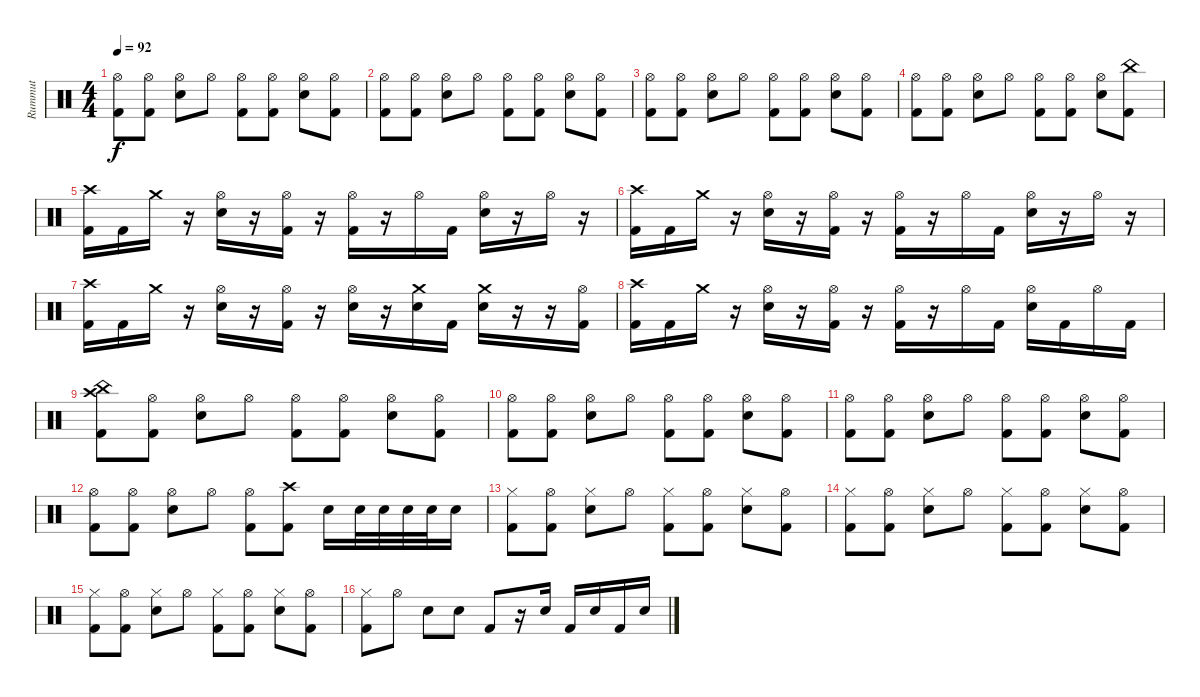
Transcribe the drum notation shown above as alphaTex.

\track ("Rummut" "Rummut") {instrument percussion}
\staff {score}
\articulation defaults
\ts (4 4)
\tempo 92
\clef neutral
\ks c
("Hi-Hat (open)" "Kick (hit) 2").8{dy f} ("Hi-Hat (open)" "Kick (hit) 2").8 ("Hi-Hat (open)" "Snare (hit) 2").8 "Hi-Hat (open)".8 ("Hi-Hat (open)" "Kick (hit) 2").8 ("Hi-Hat (open)" "Kick (hit) 2").8 ("Hi-Hat (open)" "Snare (hit) 2").8 ("Hi-Hat (open)" "Kick (hit) 2").8 |
("Hi-Hat (open)" "Kick (hit) 2").8 ("Hi-Hat (open)" "Kick (hit) 2").8 ("Hi-Hat (open)" "Snare (hit) 2").8 "Hi-Hat (open)".8 ("Hi-Hat (open)" "Kick (hit) 2").8 ("Hi-Hat (open)" "Kick (hit) 2").8 ("Hi-Hat (open)" "Snare (hit) 2").8 ("Hi-Hat (open)" "Kick (hit) 2").8 |
("Hi-Hat (open)" "Kick (hit) 2").8 ("Hi-Hat (open)" "Kick (hit) 2").8 ("Hi-Hat (open)" "Snare (hit) 2").8 "Hi-Hat (open)".8 ("Hi-Hat (open)" "Kick (hit) 2").8 ("Hi-Hat (open)" "Kick (hit) 2").8 ("Hi-Hat (open)" "Snare (hit) 2").8 ("Hi-Hat (open)" "Kick (hit) 2").8 |
("Hi-Hat (open)" "Kick (hit) 2").8 ("Hi-Hat (open)" "Kick (hit) 2").8 ("Hi-Hat (open)" "Snare (hit) 2").8 "Hi-Hat (open)".8 ("Hi-Hat (open)" "Kick (hit) 2").8 ("Hi-Hat (open)" "Kick (hit) 2").8 ("Hi-Hat (open)" "Snare (hit) 2").8 ("China (hit)" "Kick (hit) 2").8 |
("Crash high (hit)" "Kick (hit) 2").16 "Kick (hit) 2".16 "Crash medium (hit)".16 r.16 ("Hi-Hat (open)" "Snare (hit) 2").16 r.16 ("Hi-Hat (open)" "Kick (hit) 2").16 r.16 ("Hi-Hat (open)" "Kick (hit) 2").16 r.16 "Hi-Hat (open)".16 "Kick (hit) 2".16 ("Hi-Hat (open)" "Snare (hit) 2").16 r.16 "Hi-Hat (open)".16 r.16 |
("Crash high (hit)" "Kick (hit) 2").16 "Kick (hit) 2".16 "Crash medium (hit)".16 r.16 ("Hi-Hat (open)" "Snare (hit) 2").16 r.16 ("Hi-Hat (open)" "Kick (hit) 2").16 r.16 ("Hi-Hat (open)" "Kick (hit) 2").16 r.16 "Hi-Hat (open)".16 "Kick (hit) 2".16 ("Hi-Hat (open)" "Snare (hit) 2").16 r.16 "Hi-Hat (open)".16 r.16 |
("Crash high (hit)" "Kick (hit) 2").16 "Kick (hit) 2".16 "Crash medium (hit)".16 r.16 ("Hi-Hat (open)" "Snare (hit) 2").16 r.16 ("Hi-Hat (open)" "Kick (hit) 2").16 r.16 ("Hi-Hat (open)" "Snare (hit) 2").16 r.16 ("Crash medium (hit)" "Snare (hit) 2").16 "Kick (hit) 2".16 ("Crash medium (hit)" "Snare (hit) 2").16 r.16 r.16 ("Hi-Hat (open)" "Kick (hit) 2").16 |
("Crash high (hit)" "Kick (hit) 2").16 "Kick (hit) 2".16 "Crash medium (hit)".16 r.16 ("Hi-Hat (open)" "Snare (hit) 2").16 r.16 ("Hi-Hat (open)" "Kick (hit) 2").16 r.16 ("Hi-Hat (open)" "Kick (hit) 2").16 r.16 "Hi-Hat (open)".16 "Kick (hit) 2".16 ("Hi-Hat (open)" "Snare (hit) 2").16 "Kick (hit) 2".16 "Hi-Hat (open)".16 "Kick (hit) 2".16 |
("China (hit)" "Crash high (hit)" "Kick (hit) 2").8 ("Hi-Hat (open)" "Kick (hit) 2").8 ("Hi-Hat (open)" "Snare (hit) 2").8 "Hi-Hat (open)".8 ("Hi-Hat (open)" "Kick (hit) 2").8 ("Hi-Hat (open)" "Kick (hit) 2").8 ("Hi-Hat (open)" "Snare (hit) 2").8 ("Hi-Hat (open)" "Kick (hit) 2").8 |
("Hi-Hat (open)" "Kick (hit) 2").8 ("Hi-Hat (open)" "Kick (hit) 2").8 ("Hi-Hat (open)" "Snare (hit) 2").8 "Hi-Hat (open)".8 ("Hi-Hat (open)" "Kick (hit) 2").8 ("Hi-Hat (open)" "Kick (hit) 2").8 ("Hi-Hat (open)" "Snare (hit) 2").8 ("Hi-Hat (open)" "Kick (hit) 2").8 |
("Hi-Hat (open)" "Kick (hit) 2").8 ("Hi-Hat (open)" "Kick (hit) 2").8 ("Hi-Hat (open)" "Snare (hit) 2").8 "Hi-Hat (open)".8 ("Hi-Hat (open)" "Kick (hit) 2").8 ("Hi-Hat (open)" "Kick (hit) 2").8 ("Hi-Hat (open)" "Snare (hit) 2").8 ("Hi-Hat (open)" "Kick (hit) 2").8 |
("Hi-Hat (open)" "Kick (hit) 2").8 ("Hi-Hat (open)" "Kick (hit) 2").8 ("Hi-Hat (open)" "Snare (hit) 2").8 "Hi-Hat (open)".8 ("Hi-Hat (open)" "Kick (hit) 2").8 ("Crash high (hit)" "Kick (hit) 2").8 "Snare (hit) 2".16 "Snare (hit) 2".32 "Snare (hit) 2".32 "Snare (hit) 2".32 "Snare (hit) 2".32 "Snare (hit) 2".16 |
("Hi-Hat (closed)" "Kick (hit) 2").8 ("Hi-Hat (open)" "Kick (hit) 2").8 ("Hi-Hat (closed)" "Snare (hit) 2").8 "Hi-Hat (open)".8 ("Hi-Hat (closed)" "Kick (hit) 2").8 ("Hi-Hat (open)" "Kick (hit) 2").8 ("Hi-Hat (closed)" "Snare (hit) 2").8 ("Hi-Hat (open)" "Kick (hit) 2").8 |
("Hi-Hat (closed)" "Kick (hit) 2").8 ("Hi-Hat (open)" "Kick (hit) 2").8 ("Hi-Hat (closed)" "Snare (hit) 2").8 "Hi-Hat (open)".8 ("Hi-Hat (closed)" "Kick (hit) 2").8 ("Hi-Hat (open)" "Kick (hit) 2").8 ("Hi-Hat (closed)" "Snare (hit) 2").8 ("Hi-Hat (open)" "Kick (hit) 2").8 |
("Hi-Hat (closed)" "Kick (hit) 2").8 ("Hi-Hat (open)" "Kick (hit) 2").8 ("Hi-Hat (closed)" "Snare (hit) 2").8 "Hi-Hat (open)".8 ("Hi-Hat (closed)" "Kick (hit) 2").8 ("Hi-Hat (open)" "Kick (hit) 2").8 ("Hi-Hat (closed)" "Snare (hit) 2").8 ("Hi-Hat (open)" "Kick (hit) 2").8 |
("Hi-Hat (closed)" "Kick (hit) 2").8 "Hi-Hat (open)".8 "Snare (hit) 2".8 "Snare (hit) 2".8 "Kick (hit) 2".8 r.16 "Snare (hit) 2".16 "Kick (hit) 2".16 "Snare (hit) 2".16 "Kick (hit) 2".16 "Snare (hit) 2".16
